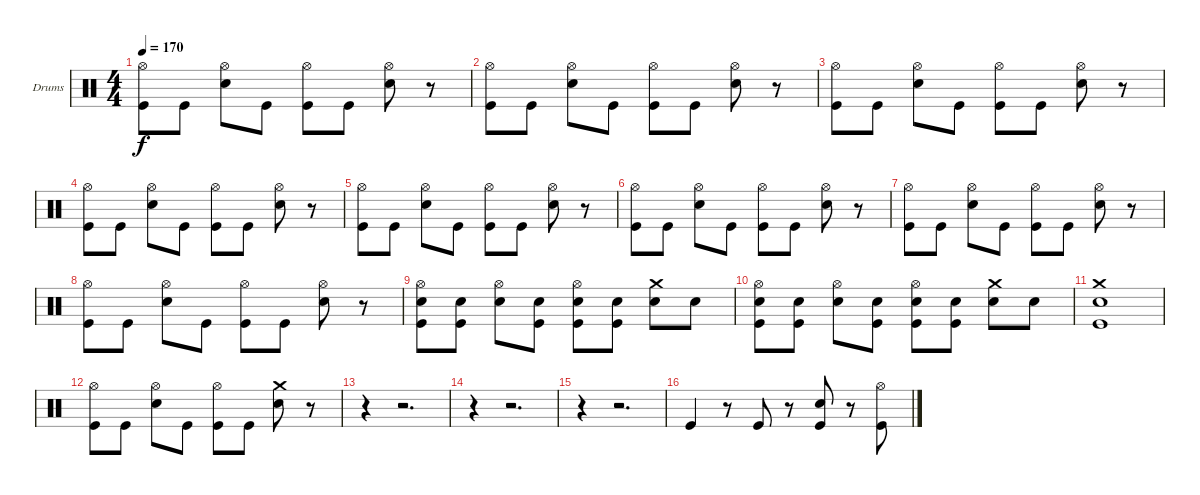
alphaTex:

\bracketExtendMode groupsimilarinstruments
\firstSystemTrackNameOrientation horizontal
\otherSystemsTrackNameOrientation horizontal
\track ("Drumkit" "Drums") {instrument percussion}
\staff {score}
\articulation defaults
\ts (4 4)
\tempo 170
\clef neutral
\ks c
("Hi-Hat (open)" "Kick (hit)").8{dy f} "Kick (hit)".8 ("Hi-Hat (open)" "Snare (hit) 2").8 "Kick (hit)".8 ("Hi-Hat (open)" "Kick (hit)").8 "Kick (hit)".8 ("Hi-Hat (open)" "Snare (hit) 2").8 r.8 |
("Hi-Hat (open)" "Kick (hit)").8 "Kick (hit)".8 ("Hi-Hat (open)" "Snare (hit) 2").8 "Kick (hit)".8 ("Hi-Hat (open)" "Kick (hit)").8 "Kick (hit)".8 ("Hi-Hat (open)" "Snare (hit) 2").8 r.8 |
("Hi-Hat (open)" "Kick (hit)").8 "Kick (hit)".8 ("Hi-Hat (open)" "Snare (hit) 2").8 "Kick (hit)".8 ("Hi-Hat (open)" "Kick (hit)").8 "Kick (hit)".8 ("Hi-Hat (open)" "Snare (hit) 2").8 r.8 |
("Hi-Hat (open)" "Kick (hit)").8 "Kick (hit)".8 ("Hi-Hat (open)" "Snare (hit) 2").8 "Kick (hit)".8 ("Hi-Hat (open)" "Kick (hit)").8 "Kick (hit)".8 ("Hi-Hat (open)" "Snare (hit) 2").8 r.8 |
("Hi-Hat (open)" "Kick (hit)").8 "Kick (hit)".8 ("Hi-Hat (open)" "Snare (hit) 2").8 "Kick (hit)".8 ("Hi-Hat (open)" "Kick (hit)").8 "Kick (hit)".8 ("Hi-Hat (open)" "Snare (hit) 2").8 r.8 |
("Hi-Hat (open)" "Kick (hit)").8 "Kick (hit)".8 ("Hi-Hat (open)" "Snare (hit) 2").8 "Kick (hit)".8 ("Hi-Hat (open)" "Kick (hit)").8 "Kick (hit)".8 ("Hi-Hat (open)" "Snare (hit) 2").8 r.8 |
("Hi-Hat (open)" "Kick (hit)").8 "Kick (hit)".8 ("Hi-Hat (open)" "Snare (hit) 2").8 "Kick (hit)".8 ("Hi-Hat (open)" "Kick (hit)").8 "Kick (hit)".8 ("Hi-Hat (open)" "Snare (hit) 2").8 r.8 |
("Hi-Hat (open)" "Kick (hit)").8 "Kick (hit)".8 ("Hi-Hat (open)" "Snare (hit) 2").8 "Kick (hit)".8 ("Hi-Hat (open)" "Kick (hit)").8 "Kick (hit)".8 ("Hi-Hat (open)" "Snare (hit) 2").8 r.8 |
("Hi-Hat (open)" "Snare (hit) 2" "Kick (hit)").8 ("Snare (hit) 2" "Kick (hit)").8 ("Hi-Hat (open)" "Snare (hit) 2").8 ("Snare (hit) 2" "Kick (hit)").8 ("Hi-Hat (open)" "Snare (hit) 2" "Kick (hit)").8 ("Snare (hit) 2" "Kick (hit)").8 ("Crash medium (hit)" "Snare (hit) 2").8 "Snare (hit) 2".8 |
("Hi-Hat (open)" "Snare (hit) 2" "Kick (hit)").8 ("Snare (hit) 2" "Kick (hit)").8 ("Hi-Hat (open)" "Snare (hit) 2").8 ("Snare (hit) 2" "Kick (hit)").8 ("Hi-Hat (open)" "Snare (hit) 2" "Kick (hit)").8 ("Snare (hit) 2" "Kick (hit)").8 ("Crash medium (hit)" "Snare (hit) 2").8 "Snare (hit) 2".8 |
("Crash medium (hit)" "Snare (hit) 2" "Kick (hit)").1 |
("Hi-Hat (open)" "Kick (hit)").8 "Kick (hit)".8 ("Hi-Hat (open)" "Snare (hit) 2").8 "Kick (hit)".8 ("Hi-Hat (open)" "Kick (hit)").8 "Kick (hit)".8 ("Crash medium (hit)" "Snare (hit) 2").8 r.8 |
r.4 r.2{d} |
r.4 r.2{d} |
r.4 r.2{d} |
"Kick (hit)".4 r.8 "Kick (hit)".8 r.8 ("Snare (hit) 2" "Kick (hit)").8 r.8 ("Hi-Hat (open)" "Kick (hit)").8
